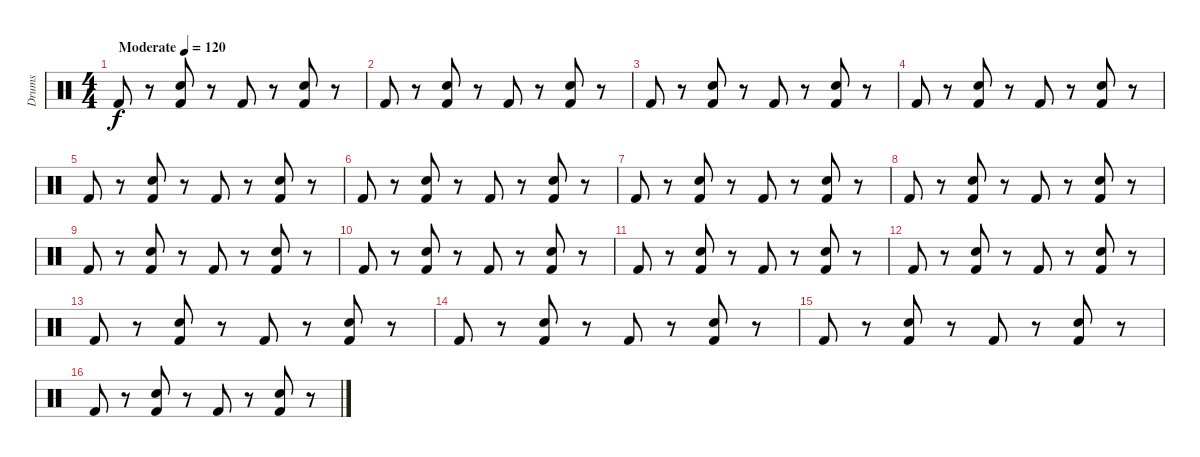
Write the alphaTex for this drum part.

\track ("Drums" "Drums") {instrument percussion}
\staff {score}
\articulation defaults
\ts (4 4)
\tempo (120 "Moderate")
\clef neutral
\ks c "Kick (hit) 2".8{dy f}
r.8 ("Snare (hit) 2" "Kick (hit) 2").8 r.8 "Kick (hit) 2".8 r.8 ("Kick (hit) 2" "Snare (hit) 2").8 r.8 |
"Kick (hit) 2".8 r.8 ("Snare (hit) 2" "Kick (hit) 2").8 r.8 "Kick (hit) 2".8 r.8 ("Kick (hit) 2" "Snare (hit) 2").8 r.8 |
"Kick (hit) 2".8 r.8 ("Snare (hit) 2" "Kick (hit) 2").8 r.8 "Kick (hit) 2".8 r.8 ("Snare (hit) 2" "Kick (hit) 2").8 r.8 |
"Kick (hit) 2".8 r.8 ("Snare (hit) 2" "Kick (hit) 2").8 r.8 "Kick (hit) 2".8 r.8 ("Snare (hit) 2" "Kick (hit) 2").8 r.8 |
"Kick (hit) 2".8 r.8 ("Kick (hit) 2" "Snare (hit) 2").8 r.8 "Kick (hit) 2".8 r.8 ("Kick (hit) 2" "Snare (hit) 2").8 r.8 |
"Kick (hit) 2".8 r.8 ("Kick (hit) 2" "Snare (hit) 2").8 r.8 "Kick (hit) 2".8 r.8 ("Kick (hit) 2" "Snare (hit) 2").8 r.8 |
"Kick (hit) 2".8 r.8 ("Kick (hit) 2" "Snare (hit) 2").8 r.8 "Kick (hit) 2".8 r.8 ("Kick (hit) 2" "Snare (hit) 2").8 r.8 |
"Kick (hit) 2".8 r.8 ("Kick (hit) 2" "Snare (hit) 2").8 r.8 "Kick (hit) 2".8 r.8 ("Kick (hit) 2" "Snare (hit) 2").8 r.8 |
"Kick (hit) 2".8 r.8 ("Kick (hit) 2" "Snare (hit) 2").8 r.8 "Kick (hit) 2".8 r.8 ("Kick (hit) 2" "Snare (hit) 2").8 r.8 |
"Kick (hit) 2".8 r.8 ("Kick (hit) 2" "Snare (hit) 2").8 r.8 "Kick (hit) 2".8 r.8 ("Kick (hit) 2" "Snare (hit) 2").8 r.8 |
"Kick (hit) 2".8 r.8 ("Kick (hit) 2" "Snare (hit) 2").8 r.8 "Kick (hit) 2".8 r.8 ("Kick (hit) 2" "Snare (hit) 2").8 r.8 |
"Kick (hit) 2".8 r.8 ("Kick (hit) 2" "Snare (hit) 2").8 r.8 "Kick (hit) 2".8 r.8 ("Kick (hit) 2" "Snare (hit) 2").8 r.8 |
"Kick (hit) 2".8 r.8 ("Kick (hit) 2" "Snare (hit) 2").8 r.8 "Kick (hit) 2".8 r.8 ("Kick (hit) 2" "Snare (hit) 2").8 r.8 |
"Kick (hit) 2".8 r.8 ("Kick (hit) 2" "Snare (hit) 2").8 r.8 "Kick (hit) 2".8 r.8 ("Kick (hit) 2" "Snare (hit) 2").8 r.8 |
"Kick (hit) 2".8 r.8 ("Kick (hit) 2" "Snare (hit) 2").8 r.8 "Kick (hit) 2".8 r.8 ("Kick (hit) 2" "Snare (hit) 2").8 r.8 |
"Kick (hit) 2".8 r.8 ("Kick (hit) 2" "Snare (hit) 2").8 r.8 "Kick (hit) 2".8 r.8 ("Kick (hit) 2" "Snare (hit) 2").8 r.8
